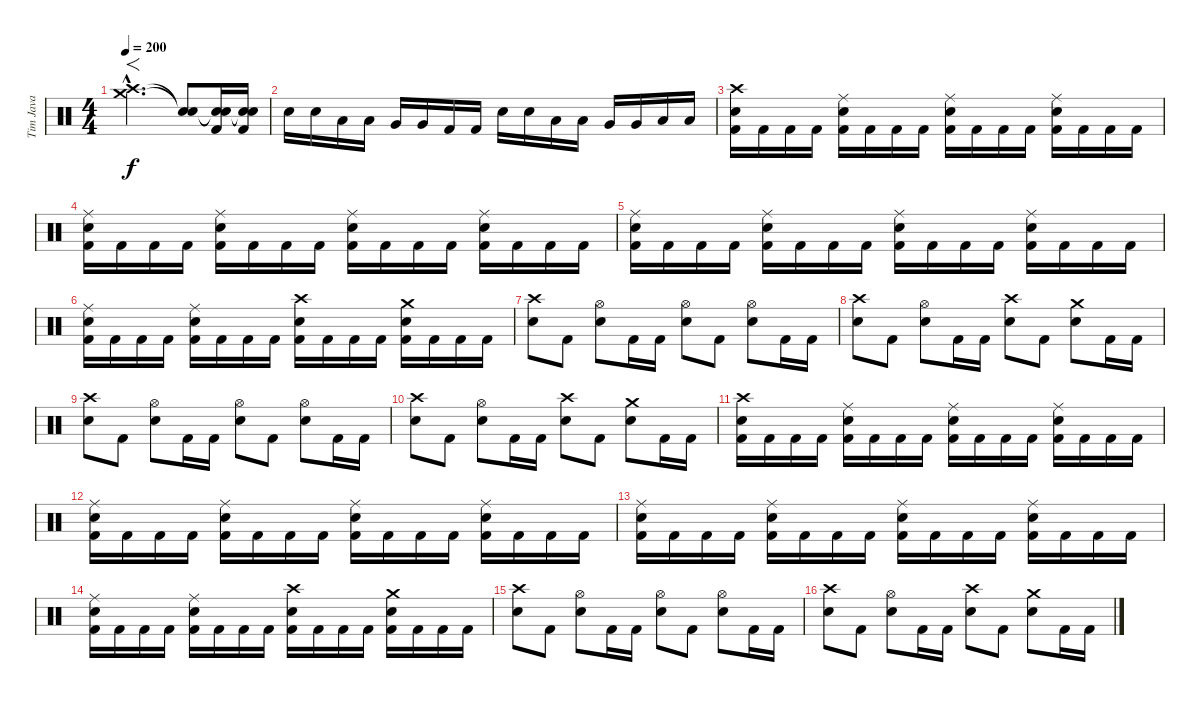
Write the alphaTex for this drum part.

\track ("Tim Java" "Tim Java") {instrument percussion}
\staff {score}
\articulation defaults
\ts (4 4)
\tempo 200
\clef neutral
\ks c
("Crash high (hit)"{hac} "Crash medium (hit)"{hac}).2{f d dy f} ("Snare (hit)"{t} "Snare (hit)"{t}).8 ("Snare (hit)"{t} "Snare (hit)"{t} "Kick (hit) 2").16 ("Snare (hit)"{t} "Snare (hit)"{t} "Kick (hit) 2").16 |
"Electric Snare (hit)".16 "Electric Snare (hit)".16 "Low Tom (hit)".16 "Low Tom (hit)".16 "Very Low Tom (hit)".16 "Very Low Tom (hit)".16 "Kick (hit) 2".16 "Kick (hit) 2".16 "Electric Snare (hit)".16 "Electric Snare (hit)".16 "Low Tom (hit)".16 "Low Tom (hit)".16 "Very Low Tom (hit)".16 "Very Low Tom (hit)".16 "Low Floor Tom (hit)".16 "Low Floor Tom (hit)".16 |
("Crash high (hit)" "Electric Snare (hit)" "Kick (hit) 2").16 "Kick (hit) 2".16 "Kick (hit) 2".16 "Kick (hit) 2".16 ("Ride (middle)" "Electric Snare (hit)" "Kick (hit) 2").16 "Kick (hit) 2".16 "Kick (hit) 2".16 "Kick (hit) 2".16 ("Ride (middle)" "Electric Snare (hit)" "Kick (hit) 2").16 "Kick (hit) 2".16 "Kick (hit) 2".16 "Kick (hit) 2".16 ("Ride (middle)" "Electric Snare (hit)" "Kick (hit) 2").16 "Kick (hit) 2".16 "Kick (hit) 2".16 "Kick (hit) 2".16 |
("Ride (middle)" "Electric Snare (hit)" "Kick (hit) 2").16 "Kick (hit) 2".16 "Kick (hit) 2".16 "Kick (hit) 2".16 ("Ride (middle)" "Electric Snare (hit)" "Kick (hit) 2").16 "Kick (hit) 2".16 "Kick (hit) 2".16 "Kick (hit) 2".16 ("Ride (middle)" "Electric Snare (hit)" "Kick (hit) 2").16 "Kick (hit) 2".16 "Kick (hit) 2".16 "Kick (hit) 2".16 ("Ride (middle)" "Electric Snare (hit)" "Kick (hit) 2").16 "Kick (hit) 2".16 "Kick (hit) 2".16 "Kick (hit) 2".16 |
("Ride (middle)" "Electric Snare (hit)" "Kick (hit) 2").16 "Kick (hit) 2".16 "Kick (hit) 2".16 "Kick (hit) 2".16 ("Ride (middle)" "Electric Snare (hit)" "Kick (hit) 2").16 "Kick (hit) 2".16 "Kick (hit) 2".16 "Kick (hit) 2".16 ("Ride (middle)" "Electric Snare (hit)" "Kick (hit) 2").16 "Kick (hit) 2".16 "Kick (hit) 2".16 "Kick (hit) 2".16 ("Ride (middle)" "Electric Snare (hit)" "Kick (hit) 2").16 "Kick (hit) 2".16 "Kick (hit) 2".16 "Kick (hit) 2".16 |
("Ride (middle)" "Electric Snare (hit)" "Kick (hit) 2").16 "Kick (hit) 2".16 "Kick (hit) 2".16 "Kick (hit) 2".16 ("Ride (middle)" "Electric Snare (hit)" "Kick (hit) 2").16 "Kick (hit) 2".16 "Kick (hit) 2".16 "Kick (hit) 2".16 ("Crash high (hit)" "Electric Snare (hit)" "Kick (hit) 2").16 "Kick (hit) 2".16 "Kick (hit) 2".16 "Kick (hit) 2".16 ("Crash medium (hit)" "Electric Snare (hit)" "Kick (hit) 2").16 "Kick (hit) 2".16 "Kick (hit) 2".16 "Kick (hit) 2".16 |
("Crash high (hit)" "Electric Snare (hit)").8 "Kick (hit) 2".8 ("Hi-Hat (open)" "Electric Snare (hit)").8 "Kick (hit) 2".16 "Kick (hit) 2".16 ("Hi-Hat (open)" "Electric Snare (hit)").8 "Kick (hit) 2".8 ("Hi-Hat (open)" "Electric Snare (hit)").8 "Kick (hit) 2".16 "Kick (hit) 2".16 |
("Crash high (hit)" "Electric Snare (hit)").8 "Kick (hit) 2".8 ("Hi-Hat (open)" "Electric Snare (hit)").8 "Kick (hit) 2".16 "Kick (hit) 2".16 ("Crash high (hit)" "Electric Snare (hit)").8 "Kick (hit) 2".8 ("Crash medium (hit)" "Electric Snare (hit)").8 "Kick (hit) 2".16 "Kick (hit) 2".16 |
("Crash high (hit)" "Electric Snare (hit)").8 "Kick (hit) 2".8 ("Hi-Hat (open)" "Electric Snare (hit)").8 "Kick (hit) 2".16 "Kick (hit) 2".16 ("Hi-Hat (open)" "Electric Snare (hit)").8 "Kick (hit) 2".8 ("Hi-Hat (open)" "Electric Snare (hit)").8 "Kick (hit) 2".16 "Kick (hit) 2".16 |
("Crash high (hit)" "Electric Snare (hit)").8 "Kick (hit) 2".8 ("Hi-Hat (open)" "Electric Snare (hit)").8 "Kick (hit) 2".16 "Kick (hit) 2".16 ("Crash high (hit)" "Electric Snare (hit)").8 "Kick (hit) 2".8 ("Crash medium (hit)" "Electric Snare (hit)").8 "Kick (hit) 2".16 "Kick (hit) 2".16 |
("Crash high (hit)" "Electric Snare (hit)" "Kick (hit) 2").16 "Kick (hit) 2".16 "Kick (hit) 2".16 "Kick (hit) 2".16 ("Ride (middle)" "Electric Snare (hit)" "Kick (hit) 2").16 "Kick (hit) 2".16 "Kick (hit) 2".16 "Kick (hit) 2".16 ("Ride (middle)" "Electric Snare (hit)" "Kick (hit) 2").16 "Kick (hit) 2".16 "Kick (hit) 2".16 "Kick (hit) 2".16 ("Ride (middle)" "Electric Snare (hit)" "Kick (hit) 2").16 "Kick (hit) 2".16 "Kick (hit) 2".16 "Kick (hit) 2".16 |
("Ride (middle)" "Electric Snare (hit)" "Kick (hit) 2").16 "Kick (hit) 2".16 "Kick (hit) 2".16 "Kick (hit) 2".16 ("Ride (middle)" "Electric Snare (hit)" "Kick (hit) 2").16 "Kick (hit) 2".16 "Kick (hit) 2".16 "Kick (hit) 2".16 ("Ride (middle)" "Electric Snare (hit)" "Kick (hit) 2").16 "Kick (hit) 2".16 "Kick (hit) 2".16 "Kick (hit) 2".16 ("Ride (middle)" "Electric Snare (hit)" "Kick (hit) 2").16 "Kick (hit) 2".16 "Kick (hit) 2".16 "Kick (hit) 2".16 |
("Ride (middle)" "Electric Snare (hit)" "Kick (hit) 2").16 "Kick (hit) 2".16 "Kick (hit) 2".16 "Kick (hit) 2".16 ("Ride (middle)" "Electric Snare (hit)" "Kick (hit) 2").16 "Kick (hit) 2".16 "Kick (hit) 2".16 "Kick (hit) 2".16 ("Ride (middle)" "Electric Snare (hit)" "Kick (hit) 2").16 "Kick (hit) 2".16 "Kick (hit) 2".16 "Kick (hit) 2".16 ("Ride (middle)" "Electric Snare (hit)" "Kick (hit) 2").16 "Kick (hit) 2".16 "Kick (hit) 2".16 "Kick (hit) 2".16 |
("Ride (middle)" "Electric Snare (hit)" "Kick (hit) 2").16 "Kick (hit) 2".16 "Kick (hit) 2".16 "Kick (hit) 2".16 ("Ride (middle)" "Electric Snare (hit)" "Kick (hit) 2").16 "Kick (hit) 2".16 "Kick (hit) 2".16 "Kick (hit) 2".16 ("Crash high (hit)" "Electric Snare (hit)" "Kick (hit) 2").16 "Kick (hit) 2".16 "Kick (hit) 2".16 "Kick (hit) 2".16 ("Crash medium (hit)" "Electric Snare (hit)" "Kick (hit) 2").16 "Kick (hit) 2".16 "Kick (hit) 2".16 "Kick (hit) 2".16 |
("Crash high (hit)" "Electric Snare (hit)").8 "Kick (hit) 2".8 ("Hi-Hat (open)" "Electric Snare (hit)").8 "Kick (hit) 2".16 "Kick (hit) 2".16 ("Hi-Hat (open)" "Electric Snare (hit)").8 "Kick (hit) 2".8 ("Hi-Hat (open)" "Electric Snare (hit)").8 "Kick (hit) 2".16 "Kick (hit) 2".16 |
("Crash high (hit)" "Electric Snare (hit)").8 "Kick (hit) 2".8 ("Hi-Hat (open)" "Electric Snare (hit)").8 "Kick (hit) 2".16 "Kick (hit) 2".16 ("Crash high (hit)" "Electric Snare (hit)").8 "Kick (hit) 2".8 ("Crash medium (hit)" "Electric Snare (hit)").8 "Kick (hit) 2".16 "Kick (hit) 2".16
